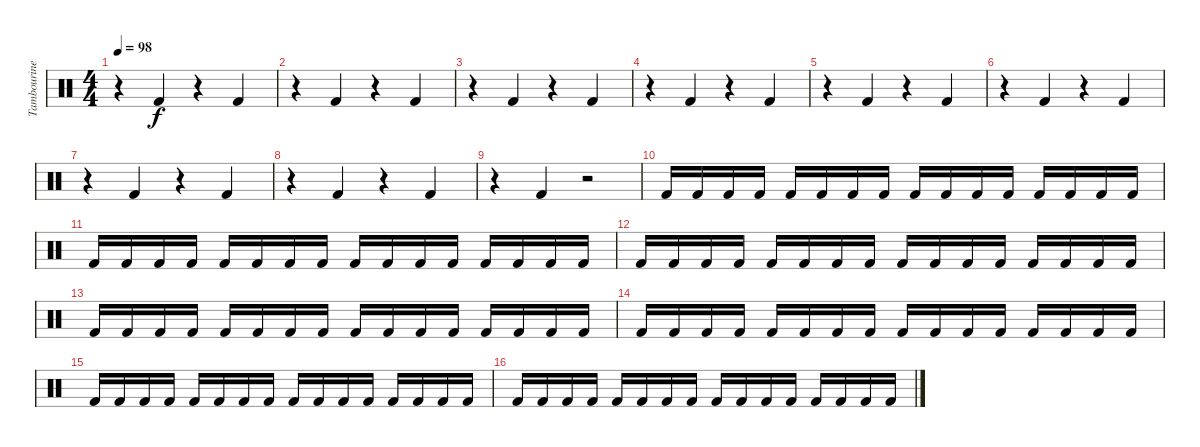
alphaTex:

\track ("Tambourine" "Tambourine") {instrument percussion}
\staff {score}
\articulation defaults
\ts (4 4)
\tempo 98
\clef neutral
\ks c
r.4{dy f} "Kick (hit) 2".4 r.4 "Kick (hit) 2".4 |
r.4 "Kick (hit) 2".4 r.4 "Kick (hit) 2".4 |
r.4 "Kick (hit) 2".4 r.4 "Kick (hit) 2".4 |
r.4 "Kick (hit) 2".4 r.4 "Kick (hit) 2".4 |
r.4 "Kick (hit) 2".4 r.4 "Kick (hit) 2".4 |
r.4 "Kick (hit) 2".4 r.4 "Kick (hit) 2".4 |
r.4 "Kick (hit) 2".4 r.4 "Kick (hit) 2".4 |
r.4 "Kick (hit) 2".4 r.4 "Kick (hit) 2".4 |
r.4 "Kick (hit) 2".4 r.2 |
"Kick (hit) 2".16 "Kick (hit) 2".16 "Kick (hit) 2".16 "Kick (hit) 2".16 "Kick (hit) 2".16 "Kick (hit) 2".16 "Kick (hit) 2".16 "Kick (hit) 2".16 "Kick (hit) 2".16 "Kick (hit) 2".16 "Kick (hit) 2".16 "Kick (hit) 2".16 "Kick (hit) 2".16 "Kick (hit) 2".16 "Kick (hit) 2".16 "Kick (hit) 2".16 |
"Kick (hit) 2".16 "Kick (hit) 2".16 "Kick (hit) 2".16 "Kick (hit) 2".16 "Kick (hit) 2".16 "Kick (hit) 2".16 "Kick (hit) 2".16 "Kick (hit) 2".16 "Kick (hit) 2".16 "Kick (hit) 2".16 "Kick (hit) 2".16 "Kick (hit) 2".16 "Kick (hit) 2".16 "Kick (hit) 2".16 "Kick (hit) 2".16 "Kick (hit) 2".16 |
"Kick (hit) 2".16 "Kick (hit) 2".16 "Kick (hit) 2".16 "Kick (hit) 2".16 "Kick (hit) 2".16 "Kick (hit) 2".16 "Kick (hit) 2".16 "Kick (hit) 2".16 "Kick (hit) 2".16 "Kick (hit) 2".16 "Kick (hit) 2".16 "Kick (hit) 2".16 "Kick (hit) 2".16 "Kick (hit) 2".16 "Kick (hit) 2".16 "Kick (hit) 2".16 |
"Kick (hit) 2".16 "Kick (hit) 2".16 "Kick (hit) 2".16 "Kick (hit) 2".16 "Kick (hit) 2".16 "Kick (hit) 2".16 "Kick (hit) 2".16 "Kick (hit) 2".16 "Kick (hit) 2".16 "Kick (hit) 2".16 "Kick (hit) 2".16 "Kick (hit) 2".16 "Kick (hit) 2".16 "Kick (hit) 2".16 "Kick (hit) 2".16 "Kick (hit) 2".16 |
"Kick (hit) 2".16 "Kick (hit) 2".16 "Kick (hit) 2".16 "Kick (hit) 2".16 "Kick (hit) 2".16 "Kick (hit) 2".16 "Kick (hit) 2".16 "Kick (hit) 2".16 "Kick (hit) 2".16 "Kick (hit) 2".16 "Kick (hit) 2".16 "Kick (hit) 2".16 "Kick (hit) 2".16 "Kick (hit) 2".16 "Kick (hit) 2".16 "Kick (hit) 2".16 |
"Kick (hit) 2".16 "Kick (hit) 2".16 "Kick (hit) 2".16 "Kick (hit) 2".16 "Kick (hit) 2".16 "Kick (hit) 2".16 "Kick (hit) 2".16 "Kick (hit) 2".16 "Kick (hit) 2".16 "Kick (hit) 2".16 "Kick (hit) 2".16 "Kick (hit) 2".16 "Kick (hit) 2".16 "Kick (hit) 2".16 "Kick (hit) 2".16 "Kick (hit) 2".16 |
"Kick (hit) 2".16 "Kick (hit) 2".16 "Kick (hit) 2".16 "Kick (hit) 2".16 "Kick (hit) 2".16 "Kick (hit) 2".16 "Kick (hit) 2".16 "Kick (hit) 2".16 "Kick (hit) 2".16 "Kick (hit) 2".16 "Kick (hit) 2".16 "Kick (hit) 2".16 "Kick (hit) 2".16 "Kick (hit) 2".16 "Kick (hit) 2".16 "Kick (hit) 2".16
